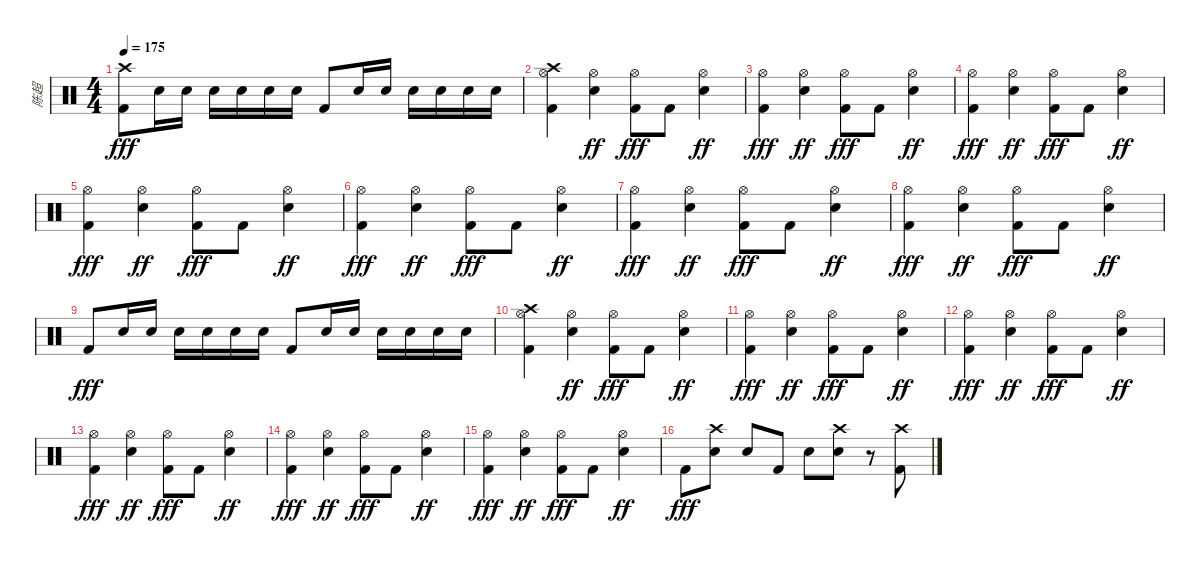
\track ("陈超" "陈超") {instrument percussion}
\staff {score}
\articulation defaults
\ts (4 4)
\tempo 175
\clef neutral
\ks c
("Crash high (hit)" "Kick (hit) 2").8{dy fff} "Electric Snare (hit)".16 "Electric Snare (hit)".16 "Electric Snare (hit)".16 "Electric Snare (hit)".16 "Electric Snare (hit)".16 "Electric Snare (hit)".16 "Kick (hit) 2".8 "Electric Snare (hit)".16 "Electric Snare (hit)".16 "Electric Snare (hit)".16 "Electric Snare (hit)".16 "Electric Snare (hit)".16 "Electric Snare (hit)".16 |
("Crash high (hit)" "Hi-Hat (open)" "Kick (hit) 2").4 ("Hi-Hat (open)" "Electric Snare (hit)").4{dy ff} ("Hi-Hat (open)" "Kick (hit) 2").8{dy fff} "Kick (hit) 2".8 ("Hi-Hat (open)" "Electric Snare (hit)").4{dy ff} |
("Hi-Hat (open)" "Kick (hit) 2").4{dy fff} ("Hi-Hat (open)" "Electric Snare (hit)").4{dy ff} ("Hi-Hat (open)" "Kick (hit) 2").8{dy fff} "Kick (hit) 2".8 ("Hi-Hat (open)" "Electric Snare (hit)").4{dy ff} |
("Hi-Hat (open)" "Kick (hit) 2").4{dy fff} ("Hi-Hat (open)" "Electric Snare (hit)").4{dy ff} ("Hi-Hat (open)" "Kick (hit) 2").8{dy fff} "Kick (hit) 2".8 ("Hi-Hat (open)" "Electric Snare (hit)").4{dy ff} |
("Hi-Hat (open)" "Kick (hit) 2").4{dy fff} ("Hi-Hat (open)" "Electric Snare (hit)").4{dy ff} ("Hi-Hat (open)" "Kick (hit) 2").8{dy fff} "Kick (hit) 2".8 ("Hi-Hat (open)" "Electric Snare (hit)").4{dy ff} |
("Hi-Hat (open)" "Kick (hit) 2").4{dy fff} ("Hi-Hat (open)" "Electric Snare (hit)").4{dy ff} ("Hi-Hat (open)" "Kick (hit) 2").8{dy fff} "Kick (hit) 2".8 ("Hi-Hat (open)" "Electric Snare (hit)").4{dy ff} |
("Hi-Hat (open)" "Kick (hit) 2").4{dy fff} ("Hi-Hat (open)" "Electric Snare (hit)").4{dy ff} ("Hi-Hat (open)" "Kick (hit) 2").8{dy fff} "Kick (hit) 2".8 ("Hi-Hat (open)" "Electric Snare (hit)").4{dy ff} |
("Hi-Hat (open)" "Kick (hit) 2").4{dy fff} ("Hi-Hat (open)" "Electric Snare (hit)").4{dy ff} ("Hi-Hat (open)" "Kick (hit) 2").8{dy fff} "Kick (hit) 2".8 ("Hi-Hat (open)" "Electric Snare (hit)").4{dy ff} |
"Kick (hit) 2".8{dy fff} "Electric Snare (hit)".16 "Electric Snare (hit)".16 "Electric Snare (hit)".16 "Electric Snare (hit)".16 "Electric Snare (hit)".16 "Electric Snare (hit)".16 "Kick (hit) 2".8 "Electric Snare (hit)".16 "Electric Snare (hit)".16 "Electric Snare (hit)".16 "Electric Snare (hit)".16 "Electric Snare (hit)".16 "Electric Snare (hit)".16 |
("Crash high (hit)" "Hi-Hat (open)" "Kick (hit) 2").4 ("Hi-Hat (open)" "Electric Snare (hit)").4{dy ff} ("Hi-Hat (open)" "Kick (hit) 2").8{dy fff} "Kick (hit) 2".8 ("Hi-Hat (open)" "Electric Snare (hit)").4{dy ff} |
("Hi-Hat (open)" "Kick (hit) 2").4{dy fff} ("Hi-Hat (open)" "Electric Snare (hit)").4{dy ff} ("Hi-Hat (open)" "Kick (hit) 2").8{dy fff} "Kick (hit) 2".8 ("Hi-Hat (open)" "Electric Snare (hit)").4{dy ff} |
("Hi-Hat (open)" "Kick (hit) 2").4{dy fff} ("Hi-Hat (open)" "Electric Snare (hit)").4{dy ff} ("Hi-Hat (open)" "Kick (hit) 2").8{dy fff} "Kick (hit) 2".8 ("Hi-Hat (open)" "Electric Snare (hit)").4{dy ff} |
("Hi-Hat (open)" "Kick (hit) 2").4{dy fff} ("Hi-Hat (open)" "Electric Snare (hit)").4{dy ff} ("Hi-Hat (open)" "Kick (hit) 2").8{dy fff} "Kick (hit) 2".8 ("Hi-Hat (open)" "Electric Snare (hit)").4{dy ff} |
("Hi-Hat (open)" "Kick (hit) 2").4{dy fff} ("Hi-Hat (open)" "Electric Snare (hit)").4{dy ff} ("Hi-Hat (open)" "Kick (hit) 2").8{dy fff} "Kick (hit) 2".8 ("Hi-Hat (open)" "Electric Snare (hit)").4{dy ff} |
("Hi-Hat (open)" "Kick (hit) 2").4{dy fff} ("Hi-Hat (open)" "Electric Snare (hit)").4{dy ff} ("Hi-Hat (open)" "Kick (hit) 2").8{dy fff} "Kick (hit) 2".8 ("Hi-Hat (open)" "Electric Snare (hit)").4{dy ff} |
"Kick (hit) 2".8{dy fff} ("Crash high (hit)" "Electric Snare (hit)").8 "Electric Snare (hit)".8 "Kick (hit) 2".8 "Electric Snare (hit)".8 ("Crash high (hit)" "Electric Snare (hit)").8 r.8 ("Crash high (hit)" "Kick (hit) 2").8
